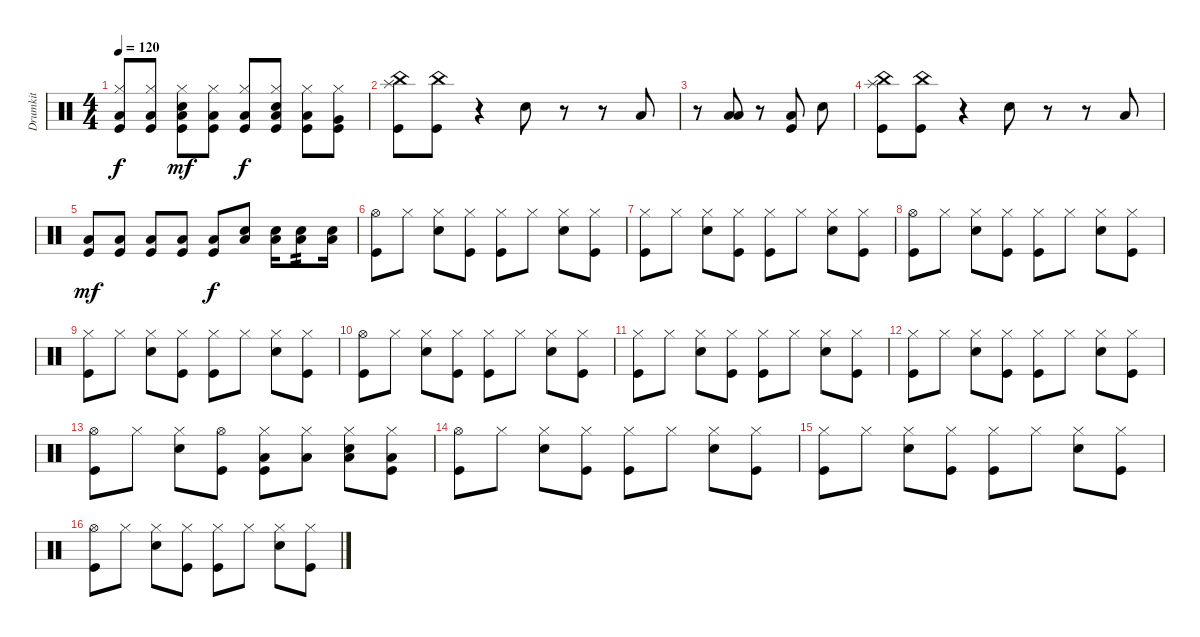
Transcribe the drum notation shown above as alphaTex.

\track ("Drumkit" "Drumkit") {instrument percussion}
\staff {score}
\articulation defaults
\ts (4 4)
\tempo 120
\clef neutral
\ks c
("Low Tom (hit)" "Hi-Hat (closed)" "Kick (hit)").8{dy f} ("Low Tom (hit)" "Hi-Hat (closed)" "Kick (hit)").8 ("Low Tom (hit)" "Hi-Hat (closed)" "Snare (hit) 2" "Kick (hit)").8{dy mf} ("Low Floor Tom (hit)" "Hi-Hat (closed)" "Kick (hit)").8 ("Low Tom (hit)" "Hi-Hat (closed)" "Kick (hit)").8{dy f} ("Low Tom (hit)" "Hi-Hat (closed)" "Snare (hit) 2" "Kick (hit)").8 ("Low Tom (hit)" "Hi-Hat (closed)" "Kick (hit)").8 ("Very Low Tom (hit)" "Hi-Hat (closed)" "Kick (hit)").8 |
("Kick (hit)" "China (hit)" "Splash (hit)").8 ("Kick (hit)" "China (hit)").8 r.4 "Snare (hit) 2".8 r.8 r.8 "Low Tom (hit)".8 |
r.8 ("Low Tom (hit)" "Low Floor Tom (hit)").8 r.8 ("Kick (hit)" "Low Floor Tom (hit)").8 "Snare (hit) 2".8 |
("Kick (hit)" "China (hit)" "Splash (hit)").8 ("Kick (hit)" "China (hit)").8 r.4 "Snare (hit) 2".8 r.8 r.8 "Low Tom (hit)".8 |
("Low Floor Tom (hit)" "Kick (hit)").8{dy mf} ("Low Floor Tom (hit)" "Kick (hit)").8 ("Low Floor Tom (hit)" "Kick (hit)").8 ("Low Floor Tom (hit)" "Kick (hit)").8 ("Low Floor Tom (hit)" "Kick (hit)").8{dy f} ("Low Floor Tom (hit)" "Snare (hit) 2").8 ("Low Floor Tom (hit)" "Snare (hit) 2").16 ("Low Floor Tom (hit)" "Snare (hit) 2").8{tp 2} ("Snare (hit) 2" "Low Floor Tom (hit)").16 |
("Kick (hit)" "Hi-Hat (open)").8 "Hi-Hat (closed)".8 ("Snare (hit) 2" "Hi-Hat (closed)").8 ("Kick (hit)" "Hi-Hat (closed)").8 ("Kick (hit)" "Hi-Hat (closed)").8 "Hi-Hat (closed)".8 ("Snare (hit) 2" "Hi-Hat (closed)").8 ("Kick (hit)" "Hi-Hat (closed)").8 |
("Kick (hit)" "Hi-Hat (closed)").8 "Hi-Hat (closed)".8 ("Snare (hit) 2" "Hi-Hat (closed)").8 ("Kick (hit)" "Hi-Hat (closed)").8 ("Kick (hit)" "Hi-Hat (closed)").8 "Hi-Hat (closed)".8 ("Snare (hit) 2" "Hi-Hat (closed)").8 ("Kick (hit)" "Hi-Hat (closed)").8 |
("Kick (hit)" "Hi-Hat (open)").8 "Hi-Hat (closed)".8 ("Snare (hit) 2" "Hi-Hat (closed)").8 ("Kick (hit)" "Hi-Hat (closed)").8 ("Kick (hit)" "Hi-Hat (closed)").8 "Hi-Hat (closed)".8 ("Snare (hit) 2" "Hi-Hat (closed)").8 ("Kick (hit)" "Hi-Hat (closed)").8 |
("Kick (hit)" "Hi-Hat (closed)").8 "Hi-Hat (closed)".8 ("Snare (hit) 2" "Hi-Hat (closed)").8 ("Kick (hit)" "Hi-Hat (closed)").8 ("Kick (hit)" "Hi-Hat (closed)").8 "Hi-Hat (closed)".8 ("Snare (hit) 2" "Hi-Hat (closed)").8 ("Kick (hit)" "Hi-Hat (closed)").8 |
("Kick (hit)" "Hi-Hat (open)").8 "Hi-Hat (closed)".8 ("Snare (hit) 2" "Hi-Hat (closed)").8 ("Kick (hit)" "Hi-Hat (closed)").8 ("Kick (hit)" "Hi-Hat (closed)").8 "Hi-Hat (closed)".8 ("Snare (hit) 2" "Hi-Hat (closed)").8 ("Kick (hit)" "Hi-Hat (closed)").8 |
("Kick (hit)" "Hi-Hat (closed)").8 "Hi-Hat (closed)".8 ("Snare (hit) 2" "Hi-Hat (closed)").8 ("Kick (hit)" "Hi-Hat (closed)").8 ("Kick (hit)" "Hi-Hat (closed)").8 "Hi-Hat (closed)".8 ("Snare (hit) 2" "Hi-Hat (closed)").8 ("Kick (hit)" "Hi-Hat (closed)").8 |
("Kick (hit)" "Hi-Hat (closed)").8 "Hi-Hat (closed)".8 ("Snare (hit) 2" "Hi-Hat (closed)").8 ("Kick (hit)" "Hi-Hat (closed)").8 ("Kick (hit)" "Hi-Hat (closed)").8 "Hi-Hat (closed)".8 ("Snare (hit) 2" "Hi-Hat (closed)").8 ("Kick (hit)" "Hi-Hat (closed)").8 |
("Kick (hit)" "Hi-Hat (open)").8 "Hi-Hat (closed)".8 ("Snare (hit) 2" "Hi-Hat (closed)").8 ("Kick (hit)" "Hi-Hat (open)").8 ("Kick (hit)" "Hi-Hat (closed)" "Low Tom (hit)").8 ("Hi-Hat (closed)" "Low Tom (hit)").8 ("Snare (hit) 2" "Hi-Hat (closed)" "Low Floor Tom (hit)").8 ("Kick (hit)" "Hi-Hat (closed)" "Low Floor Tom (hit)").8 |
("Kick (hit)" "Hi-Hat (open)").8 "Hi-Hat (closed)".8 ("Snare (hit) 2" "Hi-Hat (closed)").8 ("Kick (hit)" "Hi-Hat (closed)").8 ("Kick (hit)" "Hi-Hat (closed)").8 "Hi-Hat (closed)".8 ("Snare (hit) 2" "Hi-Hat (closed)").8 ("Kick (hit)" "Hi-Hat (closed)").8 |
("Kick (hit)" "Hi-Hat (closed)").8 "Hi-Hat (closed)".8 ("Snare (hit) 2" "Hi-Hat (closed)").8 ("Kick (hit)" "Hi-Hat (closed)").8 ("Kick (hit)" "Hi-Hat (closed)").8 "Hi-Hat (closed)".8 ("Snare (hit) 2" "Hi-Hat (closed)").8 ("Kick (hit)" "Hi-Hat (closed)").8 |
("Kick (hit)" "Hi-Hat (open)").8 "Hi-Hat (closed)".8 ("Snare (hit) 2" "Hi-Hat (closed)").8 ("Kick (hit)" "Hi-Hat (closed)").8 ("Kick (hit)" "Hi-Hat (closed)").8 "Hi-Hat (closed)".8 ("Snare (hit) 2" "Hi-Hat (closed)").8 ("Kick (hit)" "Hi-Hat (closed)").8
